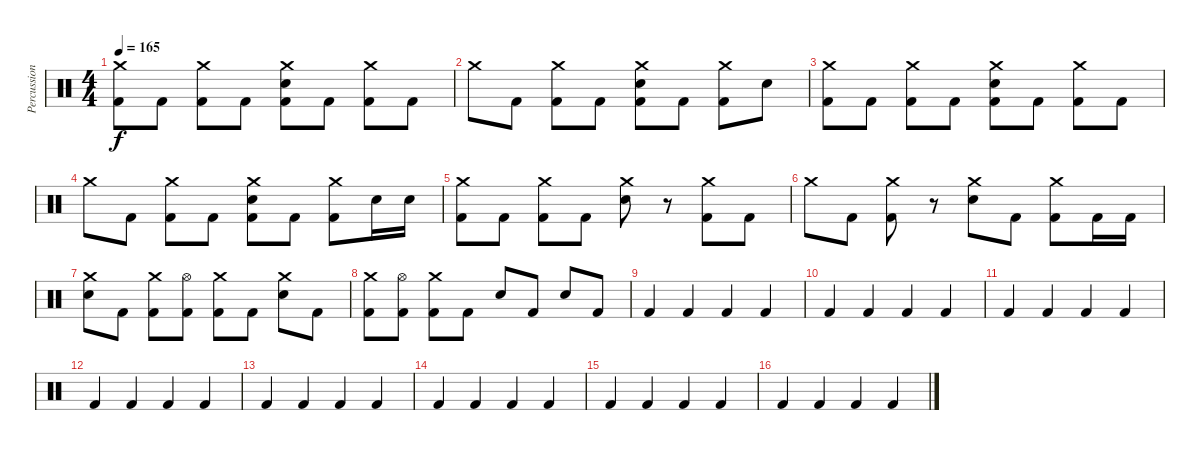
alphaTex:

\track ("Percussion" "Percussion") {instrument percussion}
\staff {score}
\articulation defaults
\ts (4 4)
\tempo 165
\clef neutral
\ks c
("Crash medium (hit)" "Kick (hit) 2").8{dy f} "Kick (hit) 2".8 ("Crash medium (hit)" "Kick (hit) 2").8 "Kick (hit) 2".8 ("Crash medium (hit)" "Snare (hit) 2" "Kick (hit) 2").8 "Kick (hit) 2".8 ("Crash medium (hit)" "Kick (hit) 2").8 "Kick (hit) 2".8 |
"Crash medium (hit)".8 "Kick (hit) 2".8 ("Crash medium (hit)" "Kick (hit) 2").8 "Kick (hit) 2".8 ("Crash medium (hit)" "Snare (hit) 2" "Kick (hit) 2").8 "Kick (hit) 2".8 ("Crash medium (hit)" "Kick (hit) 2").8 "Snare (hit) 2".8 |
("Crash medium (hit)" "Kick (hit) 2").8 "Kick (hit) 2".8 ("Crash medium (hit)" "Kick (hit) 2").8 "Kick (hit) 2".8 ("Crash medium (hit)" "Snare (hit) 2" "Kick (hit) 2").8 "Kick (hit) 2".8 ("Crash medium (hit)" "Kick (hit) 2").8 "Kick (hit) 2".8 |
"Crash medium (hit)".8 "Kick (hit) 2".8 ("Crash medium (hit)" "Kick (hit) 2").8 "Kick (hit) 2".8 ("Crash medium (hit)" "Snare (hit) 2" "Kick (hit) 2").8 "Kick (hit) 2".8 ("Crash medium (hit)" "Kick (hit) 2").8 "Snare (hit) 2".16 "Snare (hit) 2".16 |
("Crash medium (hit)" "Kick (hit) 2").8 "Kick (hit) 2".8 ("Crash medium (hit)" "Kick (hit) 2").8 "Kick (hit) 2".8 ("Crash medium (hit)" "Snare (hit) 2").8 r.8 ("Crash medium (hit)" "Kick (hit) 2").8 "Kick (hit) 2".8 |
"Crash medium (hit)".8 "Kick (hit) 2".8 ("Crash medium (hit)" "Kick (hit) 2").8 r.8 ("Crash medium (hit)" "Snare (hit) 2").8 "Kick (hit) 2".8 ("Crash medium (hit)" "Kick (hit) 2").8 "Kick (hit) 2".16 "Kick (hit) 2".16 |
("Crash medium (hit)" "Snare (hit) 2").8 "Kick (hit) 2".8 ("Crash medium (hit)" "Kick (hit) 2").8 ("Hi-Hat (open)" "Kick (hit) 2").8 ("Crash medium (hit)" "Kick (hit) 2").8 "Kick (hit) 2".8 ("Crash medium (hit)" "Snare (hit) 2").8 "Kick (hit) 2".8 |
("Crash medium (hit)" "Kick (hit) 2").8 ("Hi-Hat (open)" "Kick (hit) 2").8 ("Crash medium (hit)" "Kick (hit) 2").8 "Kick (hit) 2".8 "Snare (hit) 2".8 "Kick (hit) 2".8 "Snare (hit) 2".8 "Kick (hit) 2".8 |
"Kick (hit) 2".4 "Kick (hit) 2".4 "Kick (hit) 2".4 "Kick (hit) 2".4 |
"Kick (hit) 2".4 "Kick (hit) 2".4 "Kick (hit) 2".4 "Kick (hit) 2".4 |
"Kick (hit) 2".4 "Kick (hit) 2".4 "Kick (hit) 2".4 "Kick (hit) 2".4 |
"Kick (hit) 2".4 "Kick (hit) 2".4 "Kick (hit) 2".4 "Kick (hit) 2".4 |
"Kick (hit) 2".4 "Kick (hit) 2".4 "Kick (hit) 2".4 "Kick (hit) 2".4 |
"Kick (hit) 2".4 "Kick (hit) 2".4 "Kick (hit) 2".4 "Kick (hit) 2".4 |
"Kick (hit) 2".4 "Kick (hit) 2".4 "Kick (hit) 2".4 "Kick (hit) 2".4 |
"Kick (hit) 2".4 "Kick (hit) 2".4 "Kick (hit) 2".4 "Kick (hit) 2".4
